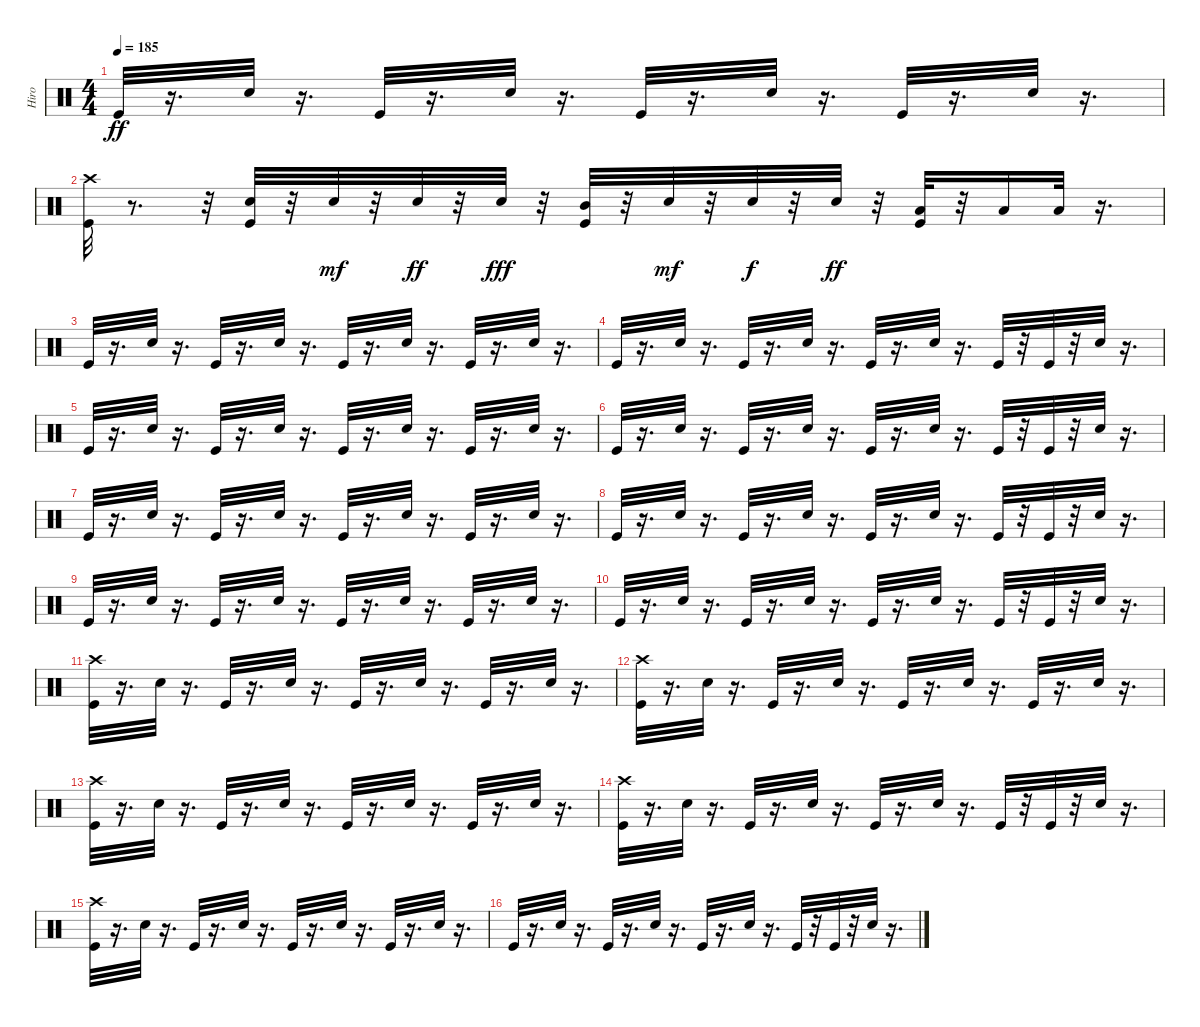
\track ("Hiro" "Hiro") {instrument percussion}
\staff {score}
\articulation defaults
\ts (4 4)
\tempo 185
\clef neutral
\ks c "Kick (hit)".32{dy ff}
r.16{d} "Electric Snare (hit)".32 r.16{d} "Kick (hit)".32 r.16{d} "Electric Snare (hit)".32 r.16{d} "Kick (hit)".32 r.16{d} "Electric Snare (hit)".32 r.16{d} "Kick (hit)".32 r.16{d} "Electric Snare (hit)".32 r.16{d} |
("Crash high (hit)" "Kick (hit)").32 r.8{d} r.32 ("Electric Snare (hit)" "Kick (hit)").32 r.32 "Electric Snare (hit)".32{dy mf} r.32 "Electric Snare (hit)".32{dy ff} r.32 "Electric Snare (hit)".32{dy fff} r.32 ("Kick (hit)" "Mid Tom (hit)").32 r.32 "Electric Snare (hit)".32{dy mf} r.32 "Electric Snare (hit)".32{dy f} r.32 "Electric Snare (hit)".32{dy ff} r.32 ("Low Tom (hit)" "Kick (hit)").32 r.32 "Low Tom (hit)".16 "Low Tom (hit)".32 r.16{d} |
"Kick (hit)".32 r.16{d} "Electric Snare (hit)".32 r.16{d} "Kick (hit)".32 r.16{d} "Electric Snare (hit)".32 r.16{d} "Kick (hit)".32 r.16{d} "Electric Snare (hit)".32 r.16{d} "Kick (hit)".32 r.16{d} "Electric Snare (hit)".32 r.16{d} |
"Kick (hit)".32 r.16{d} "Electric Snare (hit)".32 r.16{d} "Kick (hit)".32 r.16{d} "Electric Snare (hit)".32 r.16{d} "Kick (hit)".32 r.16{d} "Electric Snare (hit)".32 r.16{d} "Kick (hit)".32 r.32 "Kick (hit)".32 r.32 "Electric Snare (hit)".32 r.16{d} |
"Kick (hit)".32 r.16{d} "Electric Snare (hit)".32 r.16{d} "Kick (hit)".32 r.16{d} "Electric Snare (hit)".32 r.16{d} "Kick (hit)".32 r.16{d} "Electric Snare (hit)".32 r.16{d} "Kick (hit)".32 r.16{d} "Electric Snare (hit)".32 r.16{d} |
"Kick (hit)".32 r.16{d} "Electric Snare (hit)".32 r.16{d} "Kick (hit)".32 r.16{d} "Electric Snare (hit)".32 r.16{d} "Kick (hit)".32 r.16{d} "Electric Snare (hit)".32 r.16{d} "Kick (hit)".32 r.32 "Kick (hit)".32 r.32 "Electric Snare (hit)".32 r.16{d} |
"Kick (hit)".32 r.16{d} "Electric Snare (hit)".32 r.16{d} "Kick (hit)".32 r.16{d} "Electric Snare (hit)".32 r.16{d} "Kick (hit)".32 r.16{d} "Electric Snare (hit)".32 r.16{d} "Kick (hit)".32 r.16{d} "Electric Snare (hit)".32 r.16{d} |
"Kick (hit)".32 r.16{d} "Electric Snare (hit)".32 r.16{d} "Kick (hit)".32 r.16{d} "Electric Snare (hit)".32 r.16{d} "Kick (hit)".32 r.16{d} "Electric Snare (hit)".32 r.16{d} "Kick (hit)".32 r.32 "Kick (hit)".32 r.32 "Electric Snare (hit)".32 r.16{d} |
"Kick (hit)".32 r.16{d} "Electric Snare (hit)".32 r.16{d} "Kick (hit)".32 r.16{d} "Electric Snare (hit)".32 r.16{d} "Kick (hit)".32 r.16{d} "Electric Snare (hit)".32 r.16{d} "Kick (hit)".32 r.16{d} "Electric Snare (hit)".32 r.16{d} |
"Kick (hit)".32 r.16{d} "Electric Snare (hit)".32 r.16{d} "Kick (hit)".32 r.16{d} "Electric Snare (hit)".32 r.16{d} "Kick (hit)".32 r.16{d} "Electric Snare (hit)".32 r.16{d} "Kick (hit)".32 r.32 "Kick (hit)".32 r.32 "Electric Snare (hit)".32 r.16{d} |
("Crash high (hit)" "Kick (hit)").32 r.16{d} "Electric Snare (hit)".32 r.16{d} "Kick (hit)".32 r.16{d} "Electric Snare (hit)".32 r.16{d} "Kick (hit)".32 r.16{d} "Electric Snare (hit)".32 r.16{d} "Kick (hit)".32 r.16{d} "Electric Snare (hit)".32 r.16{d} |
("Crash high (hit)" "Kick (hit)").32 r.16{d} "Electric Snare (hit)".32 r.16{d} "Kick (hit)".32 r.16{d} "Electric Snare (hit)".32 r.16{d} "Kick (hit)".32 r.16{d} "Electric Snare (hit)".32 r.16{d} "Kick (hit)".32 r.16{d} "Electric Snare (hit)".32 r.16{d} |
("Crash high (hit)" "Kick (hit)").32 r.16{d} "Electric Snare (hit)".32 r.16{d} "Kick (hit)".32 r.16{d} "Electric Snare (hit)".32 r.16{d} "Kick (hit)".32 r.16{d} "Electric Snare (hit)".32 r.16{d} "Kick (hit)".32 r.16{d} "Electric Snare (hit)".32 r.16{d} |
("Crash high (hit)" "Kick (hit)").32 r.16{d} "Electric Snare (hit)".32 r.16{d} "Kick (hit)".32 r.16{d} "Electric Snare (hit)".32 r.16{d} "Kick (hit)".32 r.16{d} "Electric Snare (hit)".32 r.16{d} "Kick (hit)".32 r.32 "Kick (hit)".32 r.32 "Electric Snare (hit)".32 r.16{d} |
("Crash high (hit)" "Kick (hit)").32 r.16{d} "Electric Snare (hit)".32 r.16{d} "Kick (hit)".32 r.16{d} "Electric Snare (hit)".32 r.16{d} "Kick (hit)".32 r.16{d} "Electric Snare (hit)".32 r.16{d} "Kick (hit)".32 r.16{d} "Electric Snare (hit)".32 r.16{d} |
"Kick (hit)".32 r.16{d} "Electric Snare (hit)".32 r.16{d} "Kick (hit)".32 r.16{d} "Electric Snare (hit)".32 r.16{d} "Kick (hit)".32 r.16{d} "Electric Snare (hit)".32 r.16{d} "Kick (hit)".32 r.32 "Kick (hit)".32 r.32 "Electric Snare (hit)".32 r.16{d}
